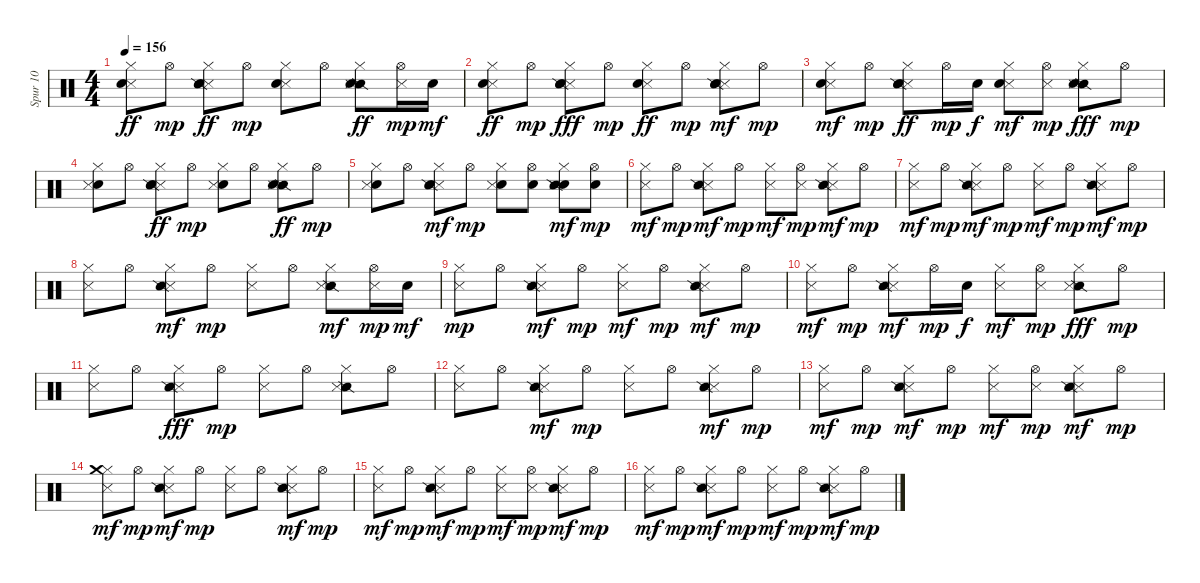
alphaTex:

\track ("Spur 10" "Spur 10") {instrument percussion}
\staff {score}
\articulation defaults
\ts (4 4)
\tempo 156
\clef neutral
\ks c
("Metronome (hit)" "Hi-Hat (closed)" "Snare (hit) 2").8{dy ff} "Hi-Hat (open)".8{dy mp} ("Metronome (hit)" "Snare (side stick) 2" "Hi-Hat (closed)" "Snare (hit) 2").8{dy ff} "Hi-Hat (open)".8{dy mp} ("Metronome (hit)" "Hi-Hat (closed)" "Snare (hit) 2").8 "Hi-Hat (open)".8 ("Snare (side stick) 2" "Metronome (hit)" "Hi-Hat (closed)" "Snare (hit) 2").8{dy ff} ("Metronome (hit)" "Hi-Hat (open)").16{dy mp} "Electric Snare (hit)".16{dy mf} |
("Metronome (hit)" "Hi-Hat (closed)" "Snare (hit) 2").8{dy ff} "Hi-Hat (open)".8{dy mp} ("Metronome (hit)" "Snare (side stick) 2" "Hi-Hat (closed)" "Snare (hit) 2").8{dy fff} "Hi-Hat (open)".8{dy mp} ("Metronome (hit)" "Hi-Hat (closed)" "Snare (hit) 2").8{dy ff} "Hi-Hat (open)".8{dy mp} ("Metronome (hit)" "Snare (side stick) 2" "Hi-Hat (closed)" "Snare (hit) 2").8{dy mf} "Hi-Hat (open)".8{dy mp} |
("Metronome (hit)" "Hi-Hat (closed)" "Snare (hit) 2").8{dy mf} "Hi-Hat (open)".8{dy mp} ("Metronome (hit)" "Snare (side stick) 2" "Hi-Hat (closed)" "Snare (hit) 2").8{dy ff} "Hi-Hat (open)".16{dy mp} "Electric Snare (hit)".16{dy f} ("Metronome (hit)" "Hi-Hat (closed)" "Snare (hit) 2").8{dy mf} ("Metronome (hit)" "Hi-Hat (open)").8{dy mp} ("Snare (side stick) 2" "Metronome (hit)" "Hi-Hat (closed)" "Snare (hit) 2").8{dy fff} "Hi-Hat (open)".8{dy mp} |
("Snare (hit) 2" "Metronome (hit)" "Hi-Hat (closed)").8 "Hi-Hat (open)".8 ("Metronome (hit)" "Snare (side stick) 2" "Hi-Hat (closed)" "Snare (hit) 2").8{dy ff} "Hi-Hat (open)".8{dy mp} ("Snare (hit) 2" "Metronome (hit)" "Hi-Hat (closed)").8 "Hi-Hat (open)".8 ("Snare (side stick) 2" "Metronome (hit)" "Hi-Hat (closed)" "Snare (hit) 2").8{dy ff} "Hi-Hat (open)".8{dy mp} |
("Snare (hit) 2" "Metronome (hit)" "Hi-Hat (closed)").8 "Hi-Hat (open)".8 ("Metronome (hit)" "Snare (side stick) 2" "Hi-Hat (closed)" "Snare (hit) 2").8{dy mf} "Hi-Hat (open)".8{dy mp} ("Snare (hit) 2" "Metronome (hit)" "Hi-Hat (closed)").8 ("Snare (hit) 2" "Hi-Hat (open)").8 ("Snare (hit) 2" "Metronome (hit)" "Snare (side stick) 2" "Hi-Hat (closed)").8{dy mf} ("Snare (hit) 2" "Hi-Hat (open)").8{dy mp} |
("Metronome (hit)" "Hi-Hat (closed)").8{dy mf} "Hi-Hat (open)".8{dy mp} ("Metronome (hit)" "Snare (side stick) 2" "Hi-Hat (closed)").8{dy mf} "Hi-Hat (open)".8{dy mp} ("Metronome (hit)" "Hi-Hat (closed)").8{dy mf} ("Metronome (hit)" "Hi-Hat (open)").8{dy mp} ("Metronome (hit)" "Snare (side stick) 2" "Hi-Hat (closed)").8{dy mf} "Hi-Hat (open)".8{dy mp} |
("Metronome (hit)" "Hi-Hat (closed)").8{dy mf} "Hi-Hat (open)".8{dy mp} ("Metronome (hit)" "Snare (side stick) 2" "Hi-Hat (closed)").8{dy mf} "Hi-Hat (open)".8{dy mp} ("Metronome (hit)" "Hi-Hat (closed)").8{dy mf} "Hi-Hat (open)".8{dy mp} ("Metronome (hit)" "Snare (side stick) 2" "Hi-Hat (closed)").8{dy mf} "Hi-Hat (open)".8{dy mp} |
("Metronome (hit)" "Hi-Hat (closed)").8 "Hi-Hat (open)".8 ("Metronome (hit)" "Snare (side stick) 2" "Hi-Hat (closed)").8{dy mf} "Hi-Hat (open)".8{dy mp} ("Metronome (hit)" "Hi-Hat (closed)").8 "Hi-Hat (open)".8 ("Snare (side stick) 2" "Metronome (hit)" "Hi-Hat (closed)").8{dy mf} ("Metronome (hit)" "Hi-Hat (open)").16{dy mp} "Electric Snare (hit)".16{dy mf} |
("Metronome (hit)" "Hi-Hat (closed)").8{dy mp} "Hi-Hat (open)".8 ("Metronome (hit)" "Snare (side stick) 2" "Hi-Hat (closed)").8{dy mf} "Hi-Hat (open)".8{dy mp} ("Metronome (hit)" "Hi-Hat (closed)").8{dy mf} "Hi-Hat (open)".8{dy mp} ("Metronome (hit)" "Snare (side stick) 2" "Hi-Hat (closed)").8{dy mf} "Hi-Hat (open)".8{dy mp} |
("Metronome (hit)" "Hi-Hat (closed)").8{dy mf} "Hi-Hat (open)".8{dy mp} ("Metronome (hit)" "Snare (side stick) 2" "Hi-Hat (closed)").8{dy mf} "Hi-Hat (open)".16{dy mp} "Electric Snare (hit)".16{dy f} ("Metronome (hit)" "Hi-Hat (closed)").8{dy mf} ("Metronome (hit)" "Hi-Hat (open)").8{dy mp} ("Snare (side stick) 2" "Metronome (hit)" "Hi-Hat (closed)").8{dy fff} "Hi-Hat (open)".8{dy mp} |
("Metronome (hit)" "Hi-Hat (closed)").8 "Hi-Hat (open)".8 ("Metronome (hit)" "Snare (side stick) 2" "Hi-Hat (closed)").8{dy fff} "Hi-Hat (open)".8{dy mp} ("Metronome (hit)" "Hi-Hat (closed)").8 "Hi-Hat (open)".8 ("Snare (side stick) 2" "Metronome (hit)" "Hi-Hat (closed)").8 "Hi-Hat (open)".8 |
("Metronome (hit)" "Hi-Hat (closed)").8 "Hi-Hat (open)".8 ("Metronome (hit)" "Snare (side stick) 2" "Hi-Hat (closed)").8{dy mf} "Hi-Hat (open)".8{dy mp} ("Metronome (hit)" "Hi-Hat (closed)").8 "Hi-Hat (open)".8 ("Metronome (hit)" "Snare (side stick) 2" "Hi-Hat (closed)").8{dy mf} "Hi-Hat (open)".8{dy mp} |
("Metronome (hit)" "Hi-Hat (closed)").8{dy mf} "Hi-Hat (open)".8{dy mp} ("Metronome (hit)" "Snare (side stick) 2" "Hi-Hat (closed)").8{dy mf} "Hi-Hat (open)".8{dy mp} ("Metronome (hit)" "Hi-Hat (closed)").8{dy mf} ("Metronome (hit)" "Hi-Hat (open)").8{dy mp} ("Metronome (hit)" "Snare (side stick) 2" "Hi-Hat (closed)").8{dy mf} "Hi-Hat (open)".8{dy mp} |
("Metronome (hit)" "Hi-Hat (closed)" "Crash medium (hit)").8{dy mf} "Hi-Hat (open)".8{dy mp} ("Metronome (hit)" "Snare (side stick) 2" "Hi-Hat (closed)").8{dy mf} "Hi-Hat (open)".8{dy mp} ("Metronome (hit)" "Hi-Hat (closed)").8 "Hi-Hat (open)".8 ("Metronome (hit)" "Snare (side stick) 2" "Hi-Hat (closed)").8{dy mf} "Hi-Hat (open)".8{dy mp} |
("Metronome (hit)" "Hi-Hat (closed)").8{dy mf} "Hi-Hat (open)".8{dy mp} ("Metronome (hit)" "Snare (side stick) 2" "Hi-Hat (closed)").8{dy mf} "Hi-Hat (open)".8{dy mp} ("Metronome (hit)" "Hi-Hat (closed)").8{dy mf} ("Metronome (hit)" "Hi-Hat (open)").8{dy mp} ("Metronome (hit)" "Snare (side stick) 2" "Hi-Hat (closed)").8{dy mf} "Hi-Hat (open)".8{dy mp} |
("Metronome (hit)" "Hi-Hat (closed)").8{dy mf} "Hi-Hat (open)".8{dy mp} ("Metronome (hit)" "Snare (side stick) 2" "Hi-Hat (closed)").8{dy mf} "Hi-Hat (open)".8{dy mp} ("Metronome (hit)" "Hi-Hat (closed)").8{dy mf} "Hi-Hat (open)".8{dy mp} ("Metronome (hit)" "Snare (side stick) 2" "Hi-Hat (closed)").8{dy mf} "Hi-Hat (open)".8{dy mp}
